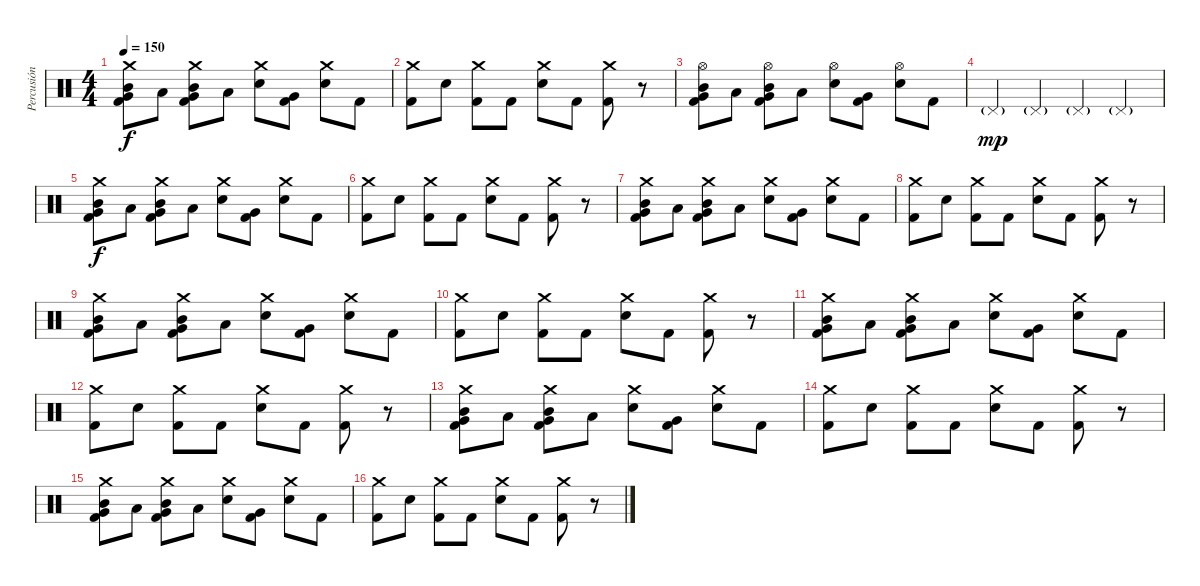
\track ("Percusión" "Percusión") {instrument percussion}
\staff {score}
\articulation defaults
\ts (4 4)
\tempo 150
\clef neutral
\ks c
("Crash medium (hit)" "Mid Tom (hit)" "Very Low Tom (hit)" "Kick (hit) 2").8{dy f} "Low Tom (hit)".8 ("Crash medium (hit)" "Mid Tom (hit)" "Very Low Tom (hit)" "Kick (hit) 2").8 "Low Tom (hit)".8 ("Crash medium (hit)" "Electric Snare (hit)").8 ("Very Low Tom (hit)" "Kick (hit) 2").8 ("Crash medium (hit)" "Electric Snare (hit)").8 "Kick (hit) 2".8 |
("Crash medium (hit)" "Kick (hit) 2").8 "Electric Snare (hit)".8 ("Crash medium (hit)" "Kick (hit) 2").8 "Kick (hit) 2".8 ("Crash medium (hit)" "Electric Snare (hit)").8 "Kick (hit) 2".8 ("Crash medium (hit)" "Kick (hit) 2").8 r.8 |
("Hi-Hat (open)" "Mid Tom (hit)" "Very Low Tom (hit)" "Kick (hit) 2").8 "Low Tom (hit)".8 ("Hi-Hat (open)" "Mid Tom (hit)" "Very Low Tom (hit)" "Kick (hit) 2").8 "Low Tom (hit)".8 ("Hi-Hat (open)" "Electric Snare (hit)").8 ("Very Low Tom (hit)" "Kick (hit) 2").8 ("Hi-Hat (open)" "Electric Snare (hit)").8 "Kick (hit) 2".8 |
"Pedal Hi-Hat (hit)"{g}.4{dy mp} "Pedal Hi-Hat (hit)"{g}.4 "Pedal Hi-Hat (hit)"{g}.4 "Pedal Hi-Hat (hit)"{g}.4 |
("Crash medium (hit)" "Mid Tom (hit)" "Very Low Tom (hit)" "Kick (hit) 2").8{dy f} "Low Tom (hit)".8 ("Crash medium (hit)" "Mid Tom (hit)" "Very Low Tom (hit)" "Kick (hit) 2").8 "Low Tom (hit)".8 ("Crash medium (hit)" "Electric Snare (hit)").8 ("Very Low Tom (hit)" "Kick (hit) 2").8 ("Crash medium (hit)" "Electric Snare (hit)").8 "Kick (hit) 2".8 |
("Crash medium (hit)" "Kick (hit) 2").8 "Electric Snare (hit)".8 ("Crash medium (hit)" "Kick (hit) 2").8 "Kick (hit) 2".8 ("Crash medium (hit)" "Electric Snare (hit)").8 "Kick (hit) 2".8 ("Crash medium (hit)" "Kick (hit) 2").8 r.8 |
("Crash medium (hit)" "Mid Tom (hit)" "Very Low Tom (hit)" "Kick (hit) 2").8 "Low Tom (hit)".8 ("Crash medium (hit)" "Mid Tom (hit)" "Very Low Tom (hit)" "Kick (hit) 2").8 "Low Tom (hit)".8 ("Crash medium (hit)" "Electric Snare (hit)").8 ("Very Low Tom (hit)" "Kick (hit) 2").8 ("Crash medium (hit)" "Electric Snare (hit)").8 "Kick (hit) 2".8 |
("Crash medium (hit)" "Kick (hit) 2").8 "Electric Snare (hit)".8 ("Crash medium (hit)" "Kick (hit) 2").8 "Kick (hit) 2".8 ("Crash medium (hit)" "Electric Snare (hit)").8 "Kick (hit) 2".8 ("Crash medium (hit)" "Kick (hit) 2").8 r.8 |
("Crash medium (hit)" "Mid Tom (hit)" "Very Low Tom (hit)" "Kick (hit) 2").8 "Low Tom (hit)".8 ("Crash medium (hit)" "Mid Tom (hit)" "Very Low Tom (hit)" "Kick (hit) 2").8 "Low Tom (hit)".8 ("Crash medium (hit)" "Electric Snare (hit)").8 ("Very Low Tom (hit)" "Kick (hit) 2").8 ("Crash medium (hit)" "Electric Snare (hit)").8 "Kick (hit) 2".8 |
("Crash medium (hit)" "Kick (hit) 2").8 "Electric Snare (hit)".8 ("Crash medium (hit)" "Kick (hit) 2").8 "Kick (hit) 2".8 ("Crash medium (hit)" "Electric Snare (hit)").8 "Kick (hit) 2".8 ("Crash medium (hit)" "Kick (hit) 2").8 r.8 |
("Crash medium (hit)" "Mid Tom (hit)" "Very Low Tom (hit)" "Kick (hit) 2").8 "Low Tom (hit)".8 ("Crash medium (hit)" "Mid Tom (hit)" "Very Low Tom (hit)" "Kick (hit) 2").8 "Low Tom (hit)".8 ("Crash medium (hit)" "Electric Snare (hit)").8 ("Very Low Tom (hit)" "Kick (hit) 2").8 ("Crash medium (hit)" "Electric Snare (hit)").8 "Kick (hit) 2".8 |
("Crash medium (hit)" "Kick (hit) 2").8 "Electric Snare (hit)".8 ("Crash medium (hit)" "Kick (hit) 2").8 "Kick (hit) 2".8 ("Crash medium (hit)" "Electric Snare (hit)").8 "Kick (hit) 2".8 ("Crash medium (hit)" "Kick (hit) 2").8 r.8 |
("Crash medium (hit)" "Mid Tom (hit)" "Very Low Tom (hit)" "Kick (hit) 2").8 "Low Tom (hit)".8 ("Crash medium (hit)" "Mid Tom (hit)" "Very Low Tom (hit)" "Kick (hit) 2").8 "Low Tom (hit)".8 ("Crash medium (hit)" "Electric Snare (hit)").8 ("Very Low Tom (hit)" "Kick (hit) 2").8 ("Crash medium (hit)" "Electric Snare (hit)").8 "Kick (hit) 2".8 |
("Crash medium (hit)" "Kick (hit) 2").8 "Electric Snare (hit)".8 ("Crash medium (hit)" "Kick (hit) 2").8 "Kick (hit) 2".8 ("Crash medium (hit)" "Electric Snare (hit)").8 "Kick (hit) 2".8 ("Crash medium (hit)" "Kick (hit) 2").8 r.8 |
("Crash medium (hit)" "Mid Tom (hit)" "Very Low Tom (hit)" "Kick (hit) 2").8 "Low Tom (hit)".8 ("Crash medium (hit)" "Mid Tom (hit)" "Very Low Tom (hit)" "Kick (hit) 2").8 "Low Tom (hit)".8 ("Crash medium (hit)" "Electric Snare (hit)").8 ("Very Low Tom (hit)" "Kick (hit) 2").8 ("Crash medium (hit)" "Electric Snare (hit)").8 "Kick (hit) 2".8 |
("Crash medium (hit)" "Kick (hit) 2").8 "Electric Snare (hit)".8 ("Crash medium (hit)" "Kick (hit) 2").8 "Kick (hit) 2".8 ("Crash medium (hit)" "Electric Snare (hit)").8 "Kick (hit) 2".8 ("Crash medium (hit)" "Kick (hit) 2").8 r.8
